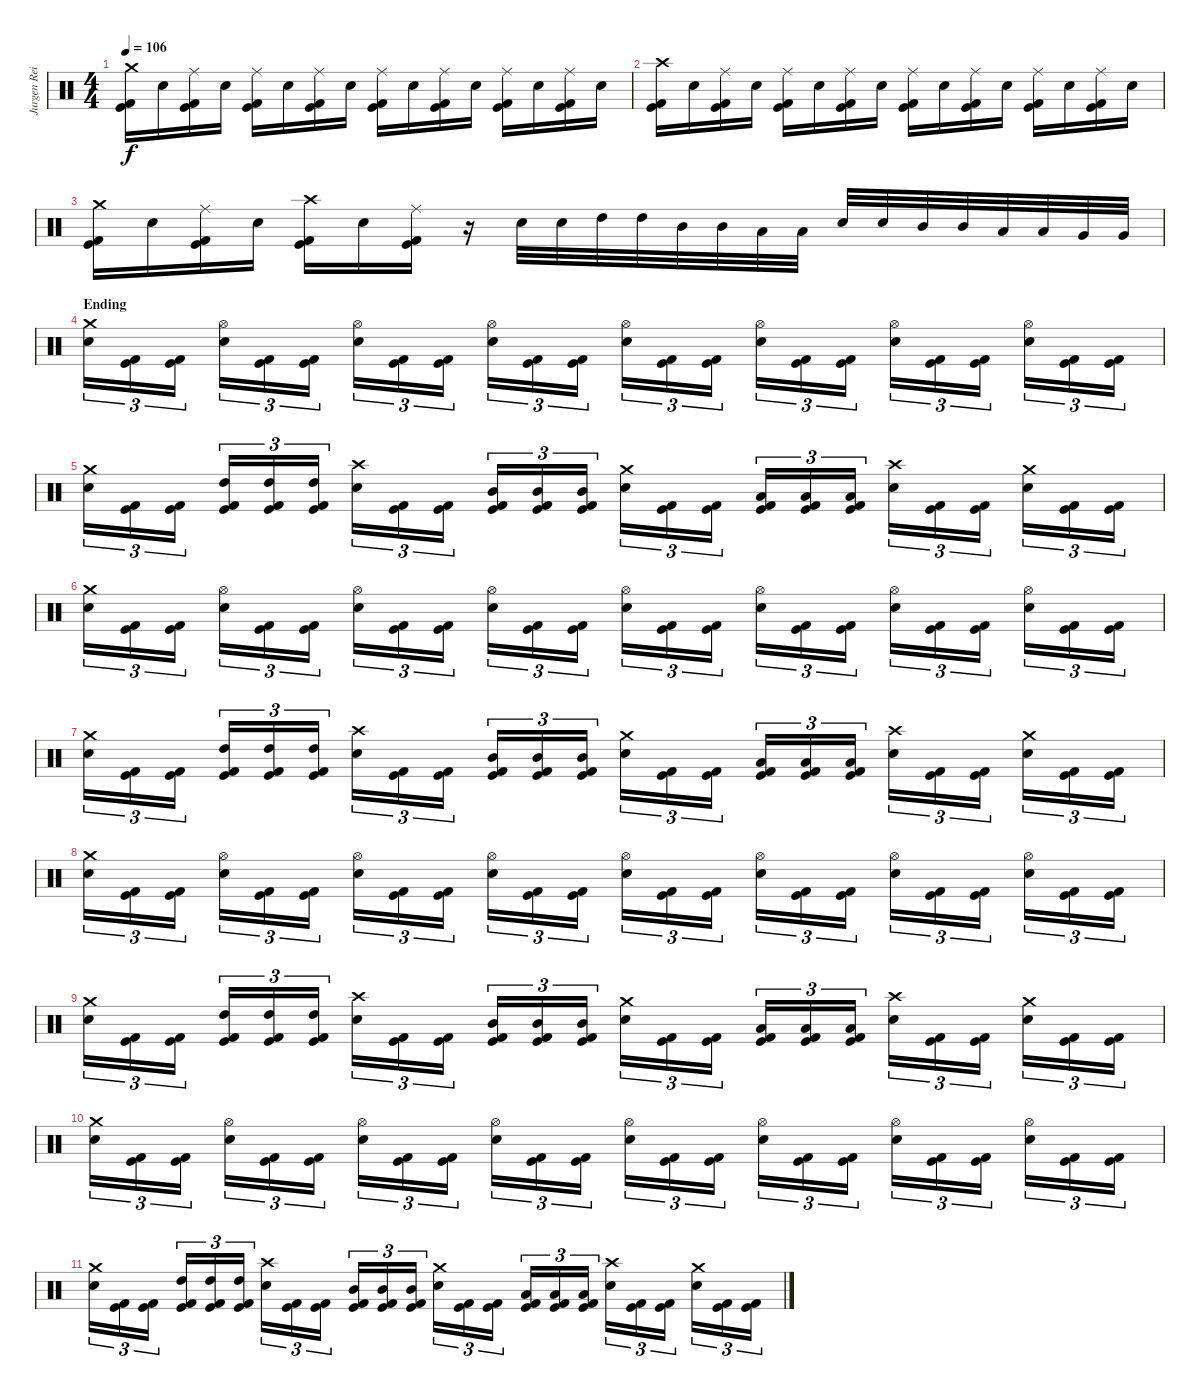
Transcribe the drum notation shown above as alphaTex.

\track ("Jurgen Reil" "Jurgen Rei") {instrument percussion}
\staff {score}
\articulation defaults
\ts (4 4)
\tempo 106
\clef neutral
\ks c
("Crash medium (hit)" "Kick (hit)" "Kick (hit) 2").16{dy f} "Electric Snare (hit)".16 ("Ride (middle)" "Kick (hit)" "Kick (hit) 2").16 "Electric Snare (hit)".16 ("Ride (middle)" "Kick (hit)" "Kick (hit) 2").16 "Electric Snare (hit)".16 ("Ride (middle)" "Kick (hit)" "Kick (hit) 2").16 "Electric Snare (hit)".16 ("Ride (middle)" "Kick (hit)" "Kick (hit) 2").16 "Electric Snare (hit)".16 ("Ride (middle)" "Kick (hit)" "Kick (hit) 2").16 "Electric Snare (hit)".16 ("Ride (middle)" "Kick (hit)" "Kick (hit) 2").16 "Electric Snare (hit)".16 ("Ride (middle)" "Kick (hit)" "Kick (hit) 2").16 "Electric Snare (hit)".16 |
("Crash high (hit)" "Kick (hit)" "Kick (hit) 2").16 "Electric Snare (hit)".16 ("Ride (middle)" "Kick (hit)" "Kick (hit) 2").16 "Electric Snare (hit)".16 ("Ride (middle)" "Kick (hit)" "Kick (hit) 2").16 "Electric Snare (hit)".16 ("Ride (middle)" "Kick (hit)" "Kick (hit) 2").16 "Electric Snare (hit)".16 ("Ride (middle)" "Kick (hit)" "Kick (hit) 2").16 "Electric Snare (hit)".16 ("Ride (middle)" "Kick (hit)" "Kick (hit) 2").16 "Electric Snare (hit)".16 ("Ride (middle)" "Kick (hit)" "Kick (hit) 2").16 "Electric Snare (hit)".16 ("Ride (middle)" "Kick (hit)" "Kick (hit) 2").16 "Electric Snare (hit)".16 |
("Crash medium (hit)" "Kick (hit)" "Kick (hit) 2").16 "Electric Snare (hit)".16 ("Ride (middle)" "Kick (hit)" "Kick (hit) 2").16 "Electric Snare (hit)".16 ("Crash high (hit)" "Kick (hit)" "Kick (hit) 2").16 "Electric Snare (hit)".16 ("Ride (middle)" "Kick (hit)" "Kick (hit) 2").16 r.16 "Electric Snare (hit)".32 "Electric Snare (hit)".32 "High Tom (hit)".32 "High Tom (hit)".32 "Mid Tom (hit)".32 "Mid Tom (hit)".32 "Low Tom (hit)".32 "Low Tom (hit)".32 "Electric Snare (hit)".32 "Electric Snare (hit)".32 "Mid Tom (hit)".32 "Mid Tom (hit)".32 "Low Tom (hit)".32 "Low Tom (hit)".32 "Very Low Tom (hit)".32 "Very Low Tom (hit)".32 |
\section ("" "Ending")
("Crash medium (hit)" "Electric Snare (hit)").16{tu (3 2)} ("Kick (hit)" "Kick (hit) 2").16{tu (3 2)} ("Kick (hit)" "Kick (hit) 2").16{tu (3 2)} ("Hi-Hat (open)" "Electric Snare (hit)").16{tu (3 2)} ("Kick (hit)" "Kick (hit) 2").16{tu (3 2)} ("Kick (hit)" "Kick (hit) 2").16{tu (3 2)} ("Hi-Hat (open)" "Electric Snare (hit)").16{tu (3 2)} ("Kick (hit)" "Kick (hit) 2").16{tu (3 2)} ("Kick (hit)" "Kick (hit) 2").16{tu (3 2)} ("Hi-Hat (open)" "Electric Snare (hit)").16{tu (3 2)} ("Kick (hit)" "Kick (hit) 2").16{tu (3 2)} ("Kick (hit)" "Kick (hit) 2").16{tu (3 2)} ("Hi-Hat (open)" "Electric Snare (hit)").16{tu (3 2)} ("Kick (hit)" "Kick (hit) 2").16{tu (3 2)} ("Kick (hit)" "Kick (hit) 2").16{tu (3 2)} ("Hi-Hat (open)" "Electric Snare (hit)").16{tu (3 2)} ("Kick (hit)" "Kick (hit) 2").16{tu (3 2)} ("Kick (hit)" "Kick (hit) 2").16{tu (3 2)} ("Hi-Hat (open)" "Electric Snare (hit)").16{tu (3 2)} ("Kick (hit)" "Kick (hit) 2").16{tu (3 2)} ("Kick (hit)" "Kick (hit) 2").16{tu (3 2)} ("Hi-Hat (open)" "Electric Snare (hit)").16{tu (3 2)} ("Kick (hit)" "Kick (hit) 2").16{tu (3 2)} ("Kick (hit)" "Kick (hit) 2").16{tu (3 2)} |
("Crash medium (hit)" "Electric Snare (hit)").16{tu (3 2)} ("Kick (hit)" "Kick (hit) 2").16{tu (3 2)} ("Kick (hit)" "Kick (hit) 2").16{tu (3 2)} ("High Tom (hit)" "Kick (hit)" "Kick (hit) 2").16{tu (3 2)} ("High Tom (hit)" "Kick (hit)" "Kick (hit) 2").16{tu (3 2)} ("High Tom (hit)" "Kick (hit)" "Kick (hit) 2").16{tu (3 2)} ("Crash high (hit)" "Electric Snare (hit)").16{tu (3 2)} ("Kick (hit)" "Kick (hit) 2").16{tu (3 2)} ("Kick (hit)" "Kick (hit) 2").16{tu (3 2)} ("Mid Tom (hit)" "Kick (hit)" "Kick (hit) 2").16{tu (3 2)} ("Mid Tom (hit)" "Kick (hit)" "Kick (hit) 2").16{tu (3 2)} ("Mid Tom (hit)" "Kick (hit)" "Kick (hit) 2").16{tu (3 2)} ("Crash medium (hit)" "Electric Snare (hit)").16{tu (3 2)} ("Kick (hit)" "Kick (hit) 2").16{tu (3 2)} ("Kick (hit)" "Kick (hit) 2").16{tu (3 2)} ("Low Tom (hit)" "Kick (hit)" "Kick (hit) 2").16{tu (3 2)} ("Low Tom (hit)" "Kick (hit)" "Kick (hit) 2").16{tu (3 2)} ("Low Tom (hit)" "Kick (hit)" "Kick (hit) 2").16{tu (3 2)} ("Crash high (hit)" "Electric Snare (hit)").16{tu (3 2)} ("Kick (hit)" "Kick (hit) 2").16{tu (3 2)} ("Kick (hit)" "Kick (hit) 2").16{tu (3 2)} ("Crash medium (hit)" "Electric Snare (hit)").16{tu (3 2)} ("Kick (hit)" "Kick (hit) 2").16{tu (3 2)} ("Kick (hit)" "Kick (hit) 2").16{tu (3 2)} |
("Crash medium (hit)" "Electric Snare (hit)").16{tu (3 2)} ("Kick (hit)" "Kick (hit) 2").16{tu (3 2)} ("Kick (hit)" "Kick (hit) 2").16{tu (3 2)} ("Hi-Hat (open)" "Electric Snare (hit)").16{tu (3 2)} ("Kick (hit)" "Kick (hit) 2").16{tu (3 2)} ("Kick (hit)" "Kick (hit) 2").16{tu (3 2)} ("Hi-Hat (open)" "Electric Snare (hit)").16{tu (3 2)} ("Kick (hit)" "Kick (hit) 2").16{tu (3 2)} ("Kick (hit)" "Kick (hit) 2").16{tu (3 2)} ("Hi-Hat (open)" "Electric Snare (hit)").16{tu (3 2)} ("Kick (hit)" "Kick (hit) 2").16{tu (3 2)} ("Kick (hit)" "Kick (hit) 2").16{tu (3 2)} ("Hi-Hat (open)" "Electric Snare (hit)").16{tu (3 2)} ("Kick (hit)" "Kick (hit) 2").16{tu (3 2)} ("Kick (hit)" "Kick (hit) 2").16{tu (3 2)} ("Hi-Hat (open)" "Electric Snare (hit)").16{tu (3 2)} ("Kick (hit)" "Kick (hit) 2").16{tu (3 2)} ("Kick (hit)" "Kick (hit) 2").16{tu (3 2)} ("Hi-Hat (open)" "Electric Snare (hit)").16{tu (3 2)} ("Kick (hit)" "Kick (hit) 2").16{tu (3 2)} ("Kick (hit)" "Kick (hit) 2").16{tu (3 2)} ("Hi-Hat (open)" "Electric Snare (hit)").16{tu (3 2)} ("Kick (hit)" "Kick (hit) 2").16{tu (3 2)} ("Kick (hit)" "Kick (hit) 2").16{tu (3 2)} |
("Crash medium (hit)" "Electric Snare (hit)").16{tu (3 2)} ("Kick (hit)" "Kick (hit) 2").16{tu (3 2)} ("Kick (hit)" "Kick (hit) 2").16{tu (3 2)} ("High Tom (hit)" "Kick (hit)" "Kick (hit) 2").16{tu (3 2)} ("High Tom (hit)" "Kick (hit)" "Kick (hit) 2").16{tu (3 2)} ("High Tom (hit)" "Kick (hit)" "Kick (hit) 2").16{tu (3 2)} ("Crash high (hit)" "Electric Snare (hit)").16{tu (3 2)} ("Kick (hit)" "Kick (hit) 2").16{tu (3 2)} ("Kick (hit)" "Kick (hit) 2").16{tu (3 2)} ("Mid Tom (hit)" "Kick (hit)" "Kick (hit) 2").16{tu (3 2)} ("Mid Tom (hit)" "Kick (hit)" "Kick (hit) 2").16{tu (3 2)} ("Mid Tom (hit)" "Kick (hit)" "Kick (hit) 2").16{tu (3 2)} ("Crash medium (hit)" "Electric Snare (hit)").16{tu (3 2)} ("Kick (hit)" "Kick (hit) 2").16{tu (3 2)} ("Kick (hit)" "Kick (hit) 2").16{tu (3 2)} ("Low Tom (hit)" "Kick (hit)" "Kick (hit) 2").16{tu (3 2)} ("Low Tom (hit)" "Kick (hit)" "Kick (hit) 2").16{tu (3 2)} ("Low Tom (hit)" "Kick (hit)" "Kick (hit) 2").16{tu (3 2)} ("Crash high (hit)" "Electric Snare (hit)").16{tu (3 2)} ("Kick (hit)" "Kick (hit) 2").16{tu (3 2)} ("Kick (hit)" "Kick (hit) 2").16{tu (3 2)} ("Crash medium (hit)" "Electric Snare (hit)").16{tu (3 2)} ("Kick (hit)" "Kick (hit) 2").16{tu (3 2)} ("Kick (hit)" "Kick (hit) 2").16{tu (3 2)} |
("Crash medium (hit)" "Electric Snare (hit)").16{tu (3 2)} ("Kick (hit)" "Kick (hit) 2").16{tu (3 2)} ("Kick (hit)" "Kick (hit) 2").16{tu (3 2)} ("Hi-Hat (open)" "Electric Snare (hit)").16{tu (3 2)} ("Kick (hit)" "Kick (hit) 2").16{tu (3 2)} ("Kick (hit)" "Kick (hit) 2").16{tu (3 2)} ("Hi-Hat (open)" "Electric Snare (hit)").16{tu (3 2)} ("Kick (hit)" "Kick (hit) 2").16{tu (3 2)} ("Kick (hit)" "Kick (hit) 2").16{tu (3 2)} ("Hi-Hat (open)" "Electric Snare (hit)").16{tu (3 2)} ("Kick (hit)" "Kick (hit) 2").16{tu (3 2)} ("Kick (hit)" "Kick (hit) 2").16{tu (3 2)} ("Hi-Hat (open)" "Electric Snare (hit)").16{tu (3 2)} ("Kick (hit)" "Kick (hit) 2").16{tu (3 2)} ("Kick (hit)" "Kick (hit) 2").16{tu (3 2)} ("Hi-Hat (open)" "Electric Snare (hit)").16{tu (3 2)} ("Kick (hit)" "Kick (hit) 2").16{tu (3 2)} ("Kick (hit)" "Kick (hit) 2").16{tu (3 2)} ("Hi-Hat (open)" "Electric Snare (hit)").16{tu (3 2)} ("Kick (hit)" "Kick (hit) 2").16{tu (3 2)} ("Kick (hit)" "Kick (hit) 2").16{tu (3 2)} ("Hi-Hat (open)" "Electric Snare (hit)").16{tu (3 2)} ("Kick (hit)" "Kick (hit) 2").16{tu (3 2)} ("Kick (hit)" "Kick (hit) 2").16{tu (3 2)} |
("Crash medium (hit)" "Electric Snare (hit)").16{tu (3 2)} ("Kick (hit)" "Kick (hit) 2").16{tu (3 2)} ("Kick (hit)" "Kick (hit) 2").16{tu (3 2)} ("High Tom (hit)" "Kick (hit)" "Kick (hit) 2").16{tu (3 2)} ("High Tom (hit)" "Kick (hit)" "Kick (hit) 2").16{tu (3 2)} ("High Tom (hit)" "Kick (hit)" "Kick (hit) 2").16{tu (3 2)} ("Crash high (hit)" "Electric Snare (hit)").16{tu (3 2)} ("Kick (hit)" "Kick (hit) 2").16{tu (3 2)} ("Kick (hit)" "Kick (hit) 2").16{tu (3 2)} ("Mid Tom (hit)" "Kick (hit)" "Kick (hit) 2").16{tu (3 2)} ("Mid Tom (hit)" "Kick (hit)" "Kick (hit) 2").16{tu (3 2)} ("Mid Tom (hit)" "Kick (hit)" "Kick (hit) 2").16{tu (3 2)} ("Crash medium (hit)" "Electric Snare (hit)").16{tu (3 2)} ("Kick (hit)" "Kick (hit) 2").16{tu (3 2)} ("Kick (hit)" "Kick (hit) 2").16{tu (3 2)} ("Low Tom (hit)" "Kick (hit)" "Kick (hit) 2").16{tu (3 2)} ("Low Tom (hit)" "Kick (hit)" "Kick (hit) 2").16{tu (3 2)} ("Low Tom (hit)" "Kick (hit)" "Kick (hit) 2").16{tu (3 2)} ("Crash high (hit)" "Electric Snare (hit)").16{tu (3 2)} ("Kick (hit)" "Kick (hit) 2").16{tu (3 2)} ("Kick (hit)" "Kick (hit) 2").16{tu (3 2)} ("Crash medium (hit)" "Electric Snare (hit)").16{tu (3 2)} ("Kick (hit)" "Kick (hit) 2").16{tu (3 2)} ("Kick (hit)" "Kick (hit) 2").16{tu (3 2)} |
("Crash medium (hit)" "Electric Snare (hit)").16{tu (3 2)} ("Kick (hit)" "Kick (hit) 2").16{tu (3 2)} ("Kick (hit)" "Kick (hit) 2").16{tu (3 2)} ("Hi-Hat (open)" "Electric Snare (hit)").16{tu (3 2)} ("Kick (hit)" "Kick (hit) 2").16{tu (3 2)} ("Kick (hit)" "Kick (hit) 2").16{tu (3 2)} ("Hi-Hat (open)" "Electric Snare (hit)").16{tu (3 2)} ("Kick (hit)" "Kick (hit) 2").16{tu (3 2)} ("Kick (hit)" "Kick (hit) 2").16{tu (3 2)} ("Hi-Hat (open)" "Electric Snare (hit)").16{tu (3 2)} ("Kick (hit)" "Kick (hit) 2").16{tu (3 2)} ("Kick (hit)" "Kick (hit) 2").16{tu (3 2)} ("Hi-Hat (open)" "Electric Snare (hit)").16{tu (3 2)} ("Kick (hit)" "Kick (hit) 2").16{tu (3 2)} ("Kick (hit)" "Kick (hit) 2").16{tu (3 2)} ("Hi-Hat (open)" "Electric Snare (hit)").16{tu (3 2)} ("Kick (hit)" "Kick (hit) 2").16{tu (3 2)} ("Kick (hit)" "Kick (hit) 2").16{tu (3 2)} ("Hi-Hat (open)" "Electric Snare (hit)").16{tu (3 2)} ("Kick (hit)" "Kick (hit) 2").16{tu (3 2)} ("Kick (hit)" "Kick (hit) 2").16{tu (3 2)} ("Hi-Hat (open)" "Electric Snare (hit)").16{tu (3 2)} ("Kick (hit)" "Kick (hit) 2").16{tu (3 2)} ("Kick (hit)" "Kick (hit) 2").16{tu (3 2)} |
("Crash medium (hit)" "Electric Snare (hit)").16{tu (3 2)} ("Kick (hit)" "Kick (hit) 2").16{tu (3 2)} ("Kick (hit)" "Kick (hit) 2").16{tu (3 2)} ("High Tom (hit)" "Kick (hit)" "Kick (hit) 2").16{tu (3 2)} ("High Tom (hit)" "Kick (hit)" "Kick (hit) 2").16{tu (3 2)} ("High Tom (hit)" "Kick (hit)" "Kick (hit) 2").16{tu (3 2)} ("Crash high (hit)" "Electric Snare (hit)").16{tu (3 2)} ("Kick (hit)" "Kick (hit) 2").16{tu (3 2)} ("Kick (hit)" "Kick (hit) 2").16{tu (3 2)} ("Mid Tom (hit)" "Kick (hit)" "Kick (hit) 2").16{tu (3 2)} ("Mid Tom (hit)" "Kick (hit)" "Kick (hit) 2").16{tu (3 2)} ("Mid Tom (hit)" "Kick (hit)" "Kick (hit) 2").16{tu (3 2)} ("Crash medium (hit)" "Electric Snare (hit)").16{tu (3 2)} ("Kick (hit)" "Kick (hit) 2").16{tu (3 2)} ("Kick (hit)" "Kick (hit) 2").16{tu (3 2)} ("Low Tom (hit)" "Kick (hit)" "Kick (hit) 2").16{tu (3 2)} ("Low Tom (hit)" "Kick (hit)" "Kick (hit) 2").16{tu (3 2)} ("Low Tom (hit)" "Kick (hit)" "Kick (hit) 2").16{tu (3 2)} ("Crash high (hit)" "Electric Snare (hit)").16{tu (3 2)} ("Kick (hit)" "Kick (hit) 2").16{tu (3 2)} ("Kick (hit)" "Kick (hit) 2").16{tu (3 2)} ("Crash medium (hit)" "Electric Snare (hit)").16{tu (3 2)} ("Kick (hit)" "Kick (hit) 2").16{tu (3 2)} ("Kick (hit)" "Kick (hit) 2").16{tu (3 2)}
